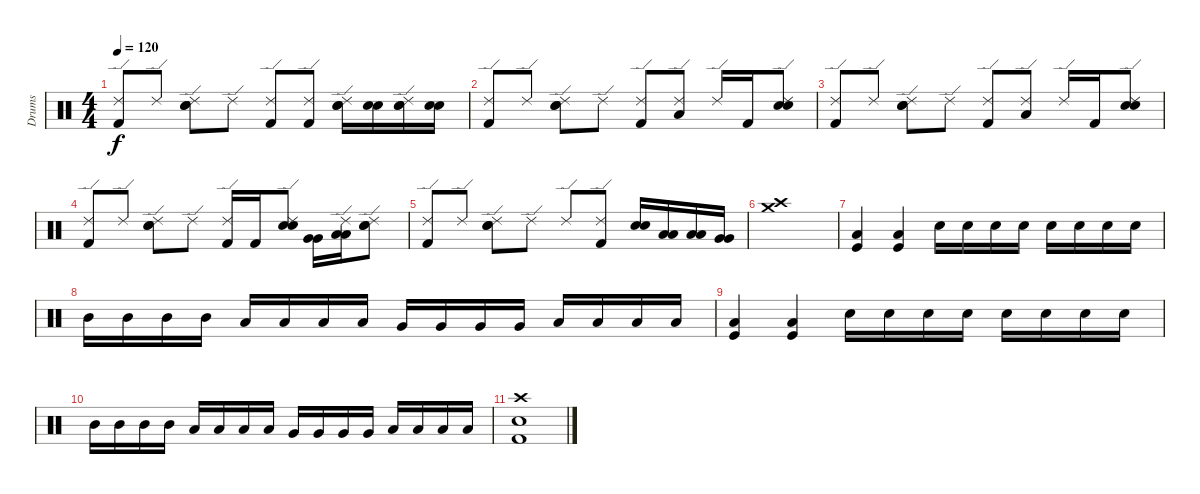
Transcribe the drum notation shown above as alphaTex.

\track ("Drums" "Drums") {instrument percussion}
\staff {score}
\articulation defaults
\ts (4 4)
\tempo 120
\clef neutral
\ks c
("Ride (edge) 2" "Kick (hit) 2").8{dy f} "Ride (edge) 2".8 ("Ride (edge) 2" "Snare (hit) 2" "Snare (hit) 2").8 "Ride (edge) 2".8 ("Ride (edge) 2" "Kick (hit) 2").8 ("Ride (edge) 2" "Kick (hit) 2").8 ("Ride (edge) 2" "Snare (hit) 2" "Snare (hit) 2").16 ("Snare (hit) 2" "Snare (hit) 2").16 ("Ride (edge) 2" "Snare (hit) 2" "Snare (hit) 2").16 ("Snare (hit) 2" "Snare (hit) 2").16 |
("Ride (edge) 2" "Kick (hit) 2").8 "Ride (edge) 2".8 ("Ride (edge) 2" "Snare (hit) 2" "Snare (hit) 2").8 "Ride (edge) 2".8 ("Ride (edge) 2" "Kick (hit) 2").8 ("Ride (edge) 2" "Low Tom (hit)").8 "Ride (edge) 2".16 "Kick (hit) 2".16 ("Ride (edge) 2" "Snare (hit) 2" "Snare (hit) 2").8 |
("Ride (edge) 2" "Kick (hit) 2").8 "Ride (edge) 2".8 ("Ride (edge) 2" "Snare (hit) 2" "Snare (hit) 2").8 "Ride (edge) 2".8 ("Ride (edge) 2" "Kick (hit) 2").8 ("Ride (edge) 2" "Low Tom (hit)").8 "Ride (edge) 2".16 "Kick (hit) 2".16 ("Ride (edge) 2" "Snare (hit) 2" "Snare (hit) 2").8 |
("Ride (edge) 2" "Kick (hit) 2").8 "Ride (edge) 2".8 ("Ride (edge) 2" "Snare (hit) 2" "Snare (hit) 2").8 "Ride (edge) 2".8 ("Ride (edge) 2" "Kick (hit) 2").16 "Kick (hit) 2".16 ("Ride (edge) 2" "Snare (hit) 2" "Snare (hit) 2").8 ("Very Low Tom (hit)" "Very Low Tom (hit)").16 ("Ride (edge) 2" "Low Tom (hit)" "Low Tom (hit)").16 ("Ride (edge) 2" "Snare (hit) 2" "Snare (hit) 2").8 |
("Ride (edge) 2" "Kick (hit) 2").8 "Ride (edge) 2".8 ("Ride (edge) 2" "Snare (hit) 2" "Snare (hit) 2").8 "Ride (edge) 2".8 "Ride (edge) 2".8 ("Ride (edge) 2" "Kick (hit) 2").8 ("Snare (hit) 2" "Snare (hit) 2").16 ("Low Tom (hit)" "Low Tom (hit)").16 ("Low Tom (hit)" "Low Tom (hit)").16 ("Very Low Tom (hit)" "Very Low Tom (hit)").16 |
("Crash high (hit)" "Crash medium (hit)").1 |
("Kick (hit)" "Low Floor Tom (hit)").4 ("Kick (hit)" "Low Floor Tom (hit)").4 "Electric Snare (hit)".16 "Electric Snare (hit)".16 "Electric Snare (hit)".16 "Electric Snare (hit)".16 "Electric Snare (hit)".16 "Electric Snare (hit)".16 "Electric Snare (hit)".16 "Electric Snare (hit)".16 |
"Mid Tom (hit)".16 "Mid Tom (hit)".16 "Mid Tom (hit)".16 "Mid Tom (hit)".16 "Low Tom (hit)".16 "Low Tom (hit)".16 "Low Tom (hit)".16 "Low Tom (hit)".16 "Very Low Tom (hit)".16 "Very Low Tom (hit)".16 "Very Low Tom (hit)".16 "Very Low Tom (hit)".16 "Low Floor Tom (hit)".16 "Low Floor Tom (hit)".16 "Low Floor Tom (hit)".16 "Low Floor Tom (hit)".16 |
("Kick (hit)" "Low Floor Tom (hit)").4 ("Kick (hit)" "Low Floor Tom (hit)").4 "Electric Snare (hit)".16 "Electric Snare (hit)".16 "Electric Snare (hit)".16 "Electric Snare (hit)".16 "Electric Snare (hit)".16 "Electric Snare (hit)".16 "Electric Snare (hit)".16 "Electric Snare (hit)".16 |
"Mid Tom (hit)".16 "Mid Tom (hit)".16 "Mid Tom (hit)".16 "Mid Tom (hit)".16 "Low Tom (hit)".16 "Low Tom (hit)".16 "Low Tom (hit)".16 "Low Tom (hit)".16 "Very Low Tom (hit)".16 "Very Low Tom (hit)".16 "Very Low Tom (hit)".16 "Very Low Tom (hit)".16 "Low Floor Tom (hit)".16 "Low Floor Tom (hit)".16 "Low Floor Tom (hit)".16 "Low Floor Tom (hit)".16 |
("Crash high (hit)" "Electric Snare (hit)" "Kick (hit) 2").1
